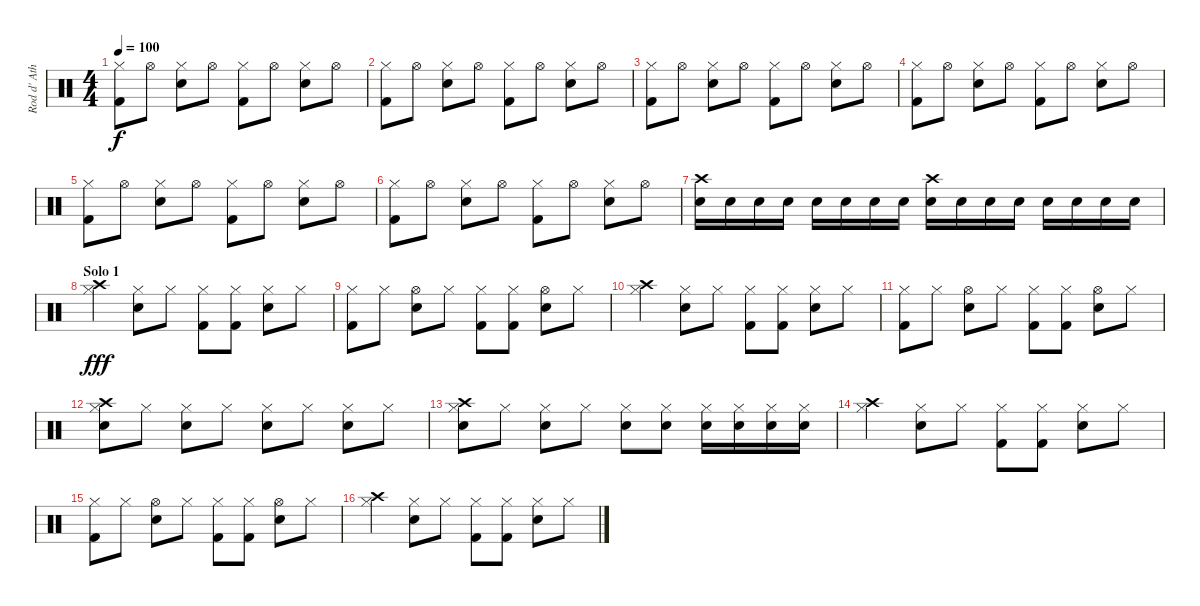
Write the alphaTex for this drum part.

\track ("Rod d' Ath" "Rod d' Ath") {instrument percussion}
\staff {score}
\articulation defaults
\ts (4 4)
\tempo 100
\clef neutral
\ks c
("Kick (hit) 2" "Hi-Hat (closed)").8{dy f} "Hi-Hat (open)".8 ("Snare (hit) 2" "Hi-Hat (closed)").8 "Hi-Hat (open)".8 ("Kick (hit) 2" "Hi-Hat (closed)").8 "Hi-Hat (open)".8 ("Snare (hit) 2" "Hi-Hat (closed)").8 "Hi-Hat (open)".8 |
("Kick (hit) 2" "Hi-Hat (closed)").8 "Hi-Hat (open)".8 ("Snare (hit) 2" "Hi-Hat (closed)").8 "Hi-Hat (open)".8 ("Kick (hit) 2" "Hi-Hat (closed)").8 "Hi-Hat (open)".8 ("Snare (hit) 2" "Hi-Hat (closed)").8 "Hi-Hat (open)".8 |
("Kick (hit) 2" "Hi-Hat (closed)").8 "Hi-Hat (open)".8 ("Snare (hit) 2" "Hi-Hat (closed)").8 "Hi-Hat (open)".8 ("Kick (hit) 2" "Hi-Hat (closed)").8 "Hi-Hat (open)".8 ("Snare (hit) 2" "Hi-Hat (closed)").8 "Hi-Hat (open)".8 |
("Kick (hit) 2" "Hi-Hat (closed)").8 "Hi-Hat (open)".8 ("Snare (hit) 2" "Hi-Hat (closed)").8 "Hi-Hat (open)".8 ("Kick (hit) 2" "Hi-Hat (closed)").8 "Hi-Hat (open)".8 ("Snare (hit) 2" "Hi-Hat (closed)").8 "Hi-Hat (open)".8 |
("Kick (hit) 2" "Hi-Hat (closed)").8 "Hi-Hat (open)".8 ("Snare (hit) 2" "Hi-Hat (closed)").8 "Hi-Hat (open)".8 ("Kick (hit) 2" "Hi-Hat (closed)").8 "Hi-Hat (open)".8 ("Snare (hit) 2" "Hi-Hat (closed)").8 "Hi-Hat (open)".8 |
("Kick (hit) 2" "Hi-Hat (closed)").8 "Hi-Hat (open)".8 ("Snare (hit) 2" "Hi-Hat (closed)").8 "Hi-Hat (open)".8 ("Kick (hit) 2" "Hi-Hat (closed)").8 "Hi-Hat (open)".8 ("Snare (hit) 2" "Hi-Hat (closed)").8 "Hi-Hat (open)".8 |
("Crash high (hit)" "Snare (hit) 2").16{balance 16} "Snare (hit) 2".16 "Snare (hit) 2".16 "Snare (hit) 2".16 "Snare (hit) 2".16 "Snare (hit) 2".16 "Snare (hit) 2".16 "Snare (hit) 2".16 ("Crash high (hit)" "Snare (hit) 2").16{balance 1} "Snare (hit) 2".16 "Snare (hit) 2".16 "Snare (hit) 2".16 "Snare (hit) 2".16 "Snare (hit) 2".16 "Snare (hit) 2".16 "Snare (hit) 2".16 |
\section ("" "Solo 1")
("Crash high (hit)" "Hi-Hat (closed)").4{dy fff} ("Snare (hit) 2" "Hi-Hat (closed)").8 "Hi-Hat (closed)".8 ("Kick (hit) 2" "Hi-Hat (closed)").8 ("Kick (hit) 2" "Hi-Hat (closed)").8 ("Snare (hit) 2" "Hi-Hat (closed)").8 "Hi-Hat (closed)".8 |
("Kick (hit) 2" "Hi-Hat (closed)").8 "Hi-Hat (closed)".8 ("Hi-Hat (open)" "Snare (hit) 2").8 "Hi-Hat (closed)".8 ("Kick (hit) 2" "Hi-Hat (closed)").8 ("Kick (hit) 2" "Hi-Hat (closed)").8 ("Snare (hit) 2" "Hi-Hat (open)").8 "Hi-Hat (closed)".8 |
("Crash high (hit)" "Hi-Hat (closed)").4 ("Snare (hit) 2" "Hi-Hat (closed)").8 "Hi-Hat (closed)".8 ("Kick (hit) 2" "Hi-Hat (closed)").8 ("Kick (hit) 2" "Hi-Hat (closed)").8 ("Snare (hit) 2" "Hi-Hat (closed)").8 "Hi-Hat (closed)".8 |
("Kick (hit) 2" "Hi-Hat (closed)").8 "Hi-Hat (closed)".8 ("Hi-Hat (open)" "Snare (hit) 2").8 "Hi-Hat (closed)".8 ("Kick (hit) 2" "Hi-Hat (closed)").8 ("Kick (hit) 2" "Hi-Hat (closed)").8 ("Snare (hit) 2" "Hi-Hat (open)").8 "Hi-Hat (closed)".8 |
("Snare (hit) 2" "Hi-Hat (closed)" "Crash high (hit)").8{volume 16} "Hi-Hat (closed)".8 ("Snare (hit) 2" "Hi-Hat (closed)").8 "Hi-Hat (closed)".8 ("Snare (hit) 2" "Hi-Hat (closed)").8 "Hi-Hat (closed)".8 ("Snare (hit) 2" "Hi-Hat (closed)").8 "Hi-Hat (closed)".8 |
("Snare (hit) 2" "Hi-Hat (closed)" "Crash high (hit)").8 "Hi-Hat (closed)".8 ("Snare (hit) 2" "Hi-Hat (closed)").8 "Hi-Hat (closed)".8 ("Snare (hit) 2" "Hi-Hat (closed)").8 ("Snare (hit) 2" "Hi-Hat (closed)").8 ("Snare (hit) 2" "Hi-Hat (closed)").16 ("Snare (hit) 2" "Hi-Hat (closed)").16 ("Snare (hit) 2" "Hi-Hat (closed)").16 ("Snare (hit) 2" "Hi-Hat (closed)").16 |
("Crash high (hit)" "Hi-Hat (closed)").4 ("Snare (hit) 2" "Hi-Hat (closed)").8 "Hi-Hat (closed)".8 ("Kick (hit) 2" "Hi-Hat (closed)").8 ("Kick (hit) 2" "Hi-Hat (closed)").8 ("Snare (hit) 2" "Hi-Hat (closed)").8 "Hi-Hat (closed)".8 |
("Kick (hit) 2" "Hi-Hat (closed)").8 "Hi-Hat (closed)".8 ("Hi-Hat (open)" "Snare (hit) 2").8 "Hi-Hat (closed)".8 ("Kick (hit) 2" "Hi-Hat (closed)").8 ("Kick (hit) 2" "Hi-Hat (closed)").8 ("Snare (hit) 2" "Hi-Hat (open)").8 "Hi-Hat (closed)".8 |
("Crash high (hit)" "Hi-Hat (closed)").4 ("Snare (hit) 2" "Hi-Hat (closed)").8 "Hi-Hat (closed)".8 ("Kick (hit) 2" "Hi-Hat (closed)").8 ("Kick (hit) 2" "Hi-Hat (closed)").8 ("Snare (hit) 2" "Hi-Hat (closed)").8 "Hi-Hat (closed)".8
